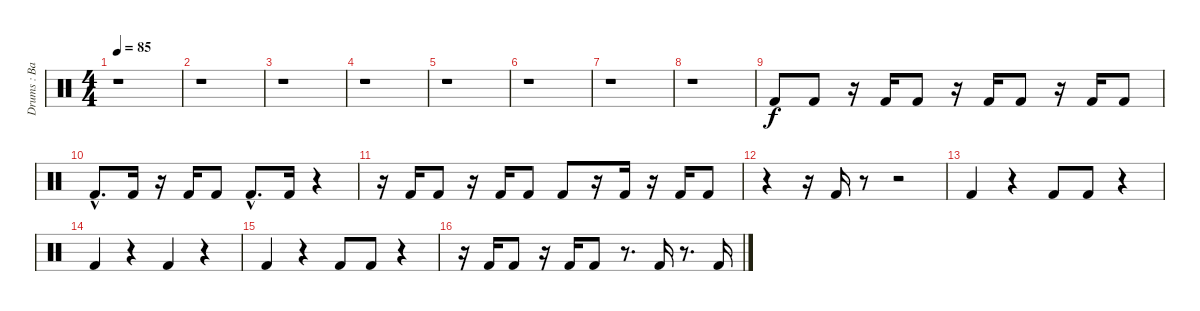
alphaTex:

\track ("Drums : Bass Drums" "Drums : Ba") {instrument percussion}
\staff {score}
\articulation defaults
\ts (4 4)
\tempo 85
\clef neutral
\ks c
r.1{dy f} |
r.1 |
r.1 |
r.1 |
r.1 |
r.1 |
r.1 |
r.1 |
"Kick (hit) 2".8 "Kick (hit) 2".8 r.16 "Kick (hit) 2".16 "Kick (hit) 2".8 r.16 "Kick (hit) 2".16 "Kick (hit) 2".8 r.16 "Kick (hit) 2".16 "Kick (hit) 2".8 |
"Kick (hit) 2"{hac}.8{d} "Kick (hit) 2".16 r.16 "Kick (hit) 2".16 "Kick (hit) 2".8 "Kick (hit) 2"{hac}.8{d} "Kick (hit) 2".16 r.4 |
r.16 "Kick (hit) 2".16 "Kick (hit) 2".8 r.16 "Kick (hit) 2".16 "Kick (hit) 2".8 "Kick (hit) 2".8 r.16 "Kick (hit) 2".16 r.16 "Kick (hit) 2".16 "Kick (hit) 2".8 |
r.4 r.16 "Kick (hit) 2".16 r.8 r.2 |
"Kick (hit) 2".4 r.4 "Kick (hit) 2".8 "Kick (hit) 2".8 r.4 |
"Kick (hit) 2".4 r.4 "Kick (hit) 2".4 r.4 |
"Kick (hit) 2".4 r.4 "Kick (hit) 2".8 "Kick (hit) 2".8 r.4 |
r.16 "Kick (hit) 2".16 "Kick (hit) 2".8 r.16 "Kick (hit) 2".16 "Kick (hit) 2".8 r.8{d} "Kick (hit) 2".16 r.8{d} "Kick (hit) 2".16
